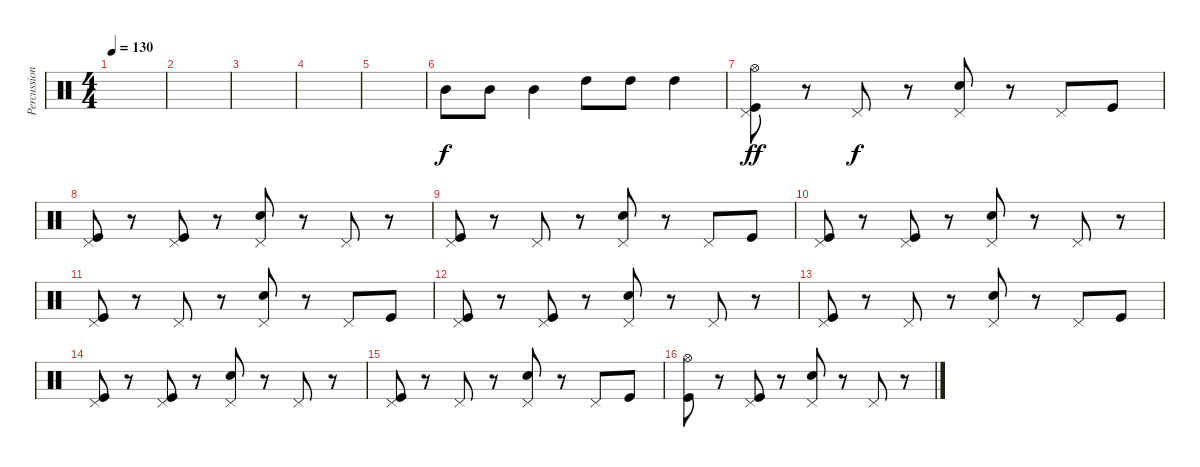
\track ("Percussioni" "Percussion") {instrument percussion}
\staff {score}
\articulation defaults
\ts (4 4)
\tempo 130
\clef neutral
\ks c
|
|
|
|
|
"Mid Tom (hit)".8 "Mid Tom (hit)".8 "Mid Tom (hit)".4 "High Tom (hit)".8 "High Tom (hit)".8 "High Tom (hit)".4 |
("Kick (hit)" "Pedal Hi-Hat (hit)" "Hi-Hat (open)").8{dy ff} r.8 "Pedal Hi-Hat (hit)".8{dy f} r.8 ("Snare (hit) 2" "Pedal Hi-Hat (hit)").8 r.8 "Pedal Hi-Hat (hit)".8 "Kick (hit)".8 |
("Pedal Hi-Hat (hit)" "Kick (hit)").8 r.8 ("Kick (hit)" "Pedal Hi-Hat (hit)").8 r.8 ("Snare (hit) 2" "Pedal Hi-Hat (hit)").8 r.8 "Pedal Hi-Hat (hit)".8 r.8 |
("Kick (hit)" "Pedal Hi-Hat (hit)").8 r.8 "Pedal Hi-Hat (hit)".8 r.8 ("Snare (hit) 2" "Pedal Hi-Hat (hit)").8 r.8 "Pedal Hi-Hat (hit)".8 "Kick (hit)".8 |
("Pedal Hi-Hat (hit)" "Kick (hit)").8 r.8 ("Kick (hit)" "Pedal Hi-Hat (hit)").8 r.8 ("Snare (hit) 2" "Pedal Hi-Hat (hit)").8 r.8 "Pedal Hi-Hat (hit)".8 r.8 |
("Kick (hit)" "Pedal Hi-Hat (hit)").8 r.8 "Pedal Hi-Hat (hit)".8 r.8 ("Snare (hit) 2" "Pedal Hi-Hat (hit)").8 r.8 "Pedal Hi-Hat (hit)".8 "Kick (hit)".8 |
("Pedal Hi-Hat (hit)" "Kick (hit)").8 r.8 ("Kick (hit)" "Pedal Hi-Hat (hit)").8 r.8 ("Snare (hit) 2" "Pedal Hi-Hat (hit)").8 r.8 "Pedal Hi-Hat (hit)".8 r.8 |
("Kick (hit)" "Pedal Hi-Hat (hit)").8 r.8 "Pedal Hi-Hat (hit)".8 r.8 ("Snare (hit) 2" "Pedal Hi-Hat (hit)").8 r.8 "Pedal Hi-Hat (hit)".8 "Kick (hit)".8 |
("Pedal Hi-Hat (hit)" "Kick (hit)").8 r.8 ("Kick (hit)" "Pedal Hi-Hat (hit)").8 r.8 ("Snare (hit) 2" "Pedal Hi-Hat (hit)").8 r.8 "Pedal Hi-Hat (hit)".8 r.8 |
("Kick (hit)" "Pedal Hi-Hat (hit)").8 r.8 "Pedal Hi-Hat (hit)".8 r.8 ("Snare (hit) 2" "Pedal Hi-Hat (hit)").8 r.8 "Pedal Hi-Hat (hit)".8 "Kick (hit)".8 |
("Hi-Hat (open)" "Kick (hit)").8 r.8 ("Kick (hit)" "Pedal Hi-Hat (hit)").8 r.8 ("Snare (hit) 2" "Pedal Hi-Hat (hit)").8 r.8 "Pedal Hi-Hat (hit)".8 r.8
